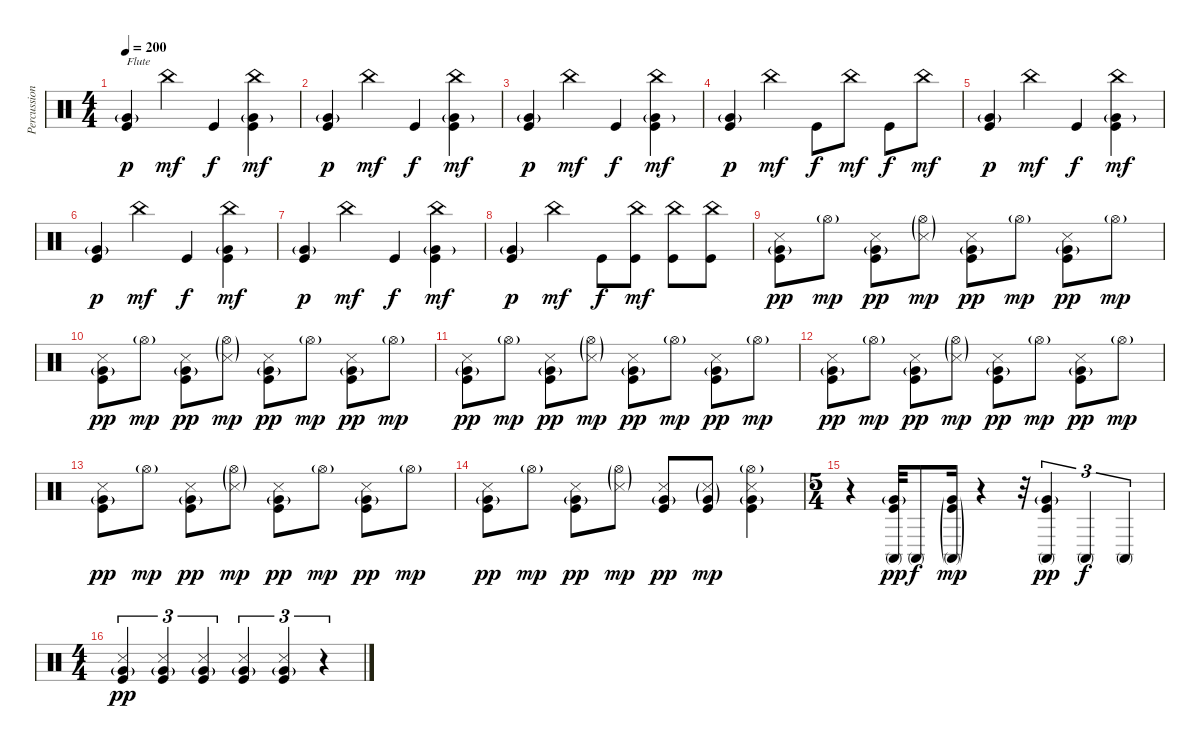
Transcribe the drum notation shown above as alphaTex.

\track ("Percussion" "Percussion") {instrument percussion}
\staff {score}
\articulation defaults
\ts (4 4)
\tempo 200
\clef neutral
\ks c
("Very Low Tom (hit)"{g} "Kick (hit)").4{txt "Flute" dy p} "China (hit)".4{dy mf} "Kick (hit)".4{dy f} ("Very Low Tom (hit)"{g} "China (hit)" "Kick (hit)").4{dy mf} |
("Very Low Tom (hit)"{g} "Kick (hit)").4{dy p} "China (hit)".4{dy mf} "Kick (hit)".4{dy f} ("Very Low Tom (hit)"{g} "China (hit)" "Kick (hit)").4{dy mf} |
("Very Low Tom (hit)"{g} "Kick (hit)").4{dy p} "China (hit)".4{dy mf} "Kick (hit)".4{dy f} ("Very Low Tom (hit)"{g} "China (hit)" "Kick (hit)").4{dy mf} |
("Very Low Tom (hit)"{g} "Kick (hit)").4{dy p} "China (hit)".4{dy mf} "Kick (hit)".8{dy f} "China (hit)".8{dy mf} "Kick (hit)".8{dy f} "China (hit)".8{dy mf} |
("Very Low Tom (hit)"{g} "Kick (hit)").4{dy p} "China (hit)".4{dy mf} "Kick (hit)".4{dy f} ("Very Low Tom (hit)"{g} "China (hit)" "Kick (hit)").4{dy mf} |
("Very Low Tom (hit)"{g} "Kick (hit)").4{dy p} "China (hit)".4{dy mf} "Kick (hit)".4{dy f} ("Very Low Tom (hit)"{g} "China (hit)" "Kick (hit)").4{dy mf} |
("Very Low Tom (hit)"{g} "Kick (hit)").4{dy p} "China (hit)".4{dy mf} "Kick (hit)".4{dy f} ("Very Low Tom (hit)"{g} "China (hit)" "Kick (hit)").4{dy mf} |
("Very Low Tom (hit)"{g} "Kick (hit)").4{dy p} "China (hit)".4{dy mf} "Kick (hit)".8{dy f} ("China (hit)" "Kick (hit)").8{dy mf} ("China (hit)" "Kick (hit)").8 ("China (hit)" "Kick (hit)").8 |
("Very Low Tom (hit)"{g} "Snare (side stick) 3" "Kick (hit)").8{dy pp} "Hi-Hat (open)"{g}.8{dy mp} ("Very Low Tom (hit)"{g} "Snare (side stick) 3" "Kick (hit)").8{dy pp} ("Snare (side stick) 3"{g} "Hi-Hat (open)"{g}).8{dy mp} ("Very Low Tom (hit)"{g} "Snare (side stick) 3" "Kick (hit)").8{dy pp} "Hi-Hat (open)"{g}.8{dy mp} ("Very Low Tom (hit)"{g} "Snare (side stick) 3" "Kick (hit)").8{dy pp} "Hi-Hat (open)"{g}.8{dy mp} |
("Very Low Tom (hit)"{g} "Snare (side stick) 3" "Kick (hit)").8{dy pp} "Hi-Hat (open)"{g}.8{dy mp} ("Very Low Tom (hit)"{g} "Snare (side stick) 3" "Kick (hit)").8{dy pp} ("Snare (side stick) 3"{g} "Hi-Hat (open)"{g}).8{dy mp} ("Very Low Tom (hit)"{g} "Snare (side stick) 3" "Kick (hit)").8{dy pp} "Hi-Hat (open)"{g}.8{dy mp} ("Very Low Tom (hit)"{g} "Snare (side stick) 3" "Kick (hit)").8{dy pp} "Hi-Hat (open)"{g}.8{dy mp} |
("Very Low Tom (hit)"{g} "Snare (side stick) 3" "Kick (hit)").8{dy pp} "Hi-Hat (open)"{g}.8{dy mp} ("Very Low Tom (hit)"{g} "Snare (side stick) 3" "Kick (hit)").8{dy pp} ("Snare (side stick) 3"{g} "Hi-Hat (open)"{g}).8{dy mp} ("Very Low Tom (hit)"{g} "Snare (side stick) 3" "Kick (hit)").8{dy pp} "Hi-Hat (open)"{g}.8{dy mp} ("Very Low Tom (hit)"{g} "Snare (side stick) 3" "Kick (hit)").8{dy pp} "Hi-Hat (open)"{g}.8{dy mp} |
("Very Low Tom (hit)"{g} "Snare (side stick) 3" "Kick (hit)").8{dy pp} "Hi-Hat (open)"{g}.8{dy mp} ("Very Low Tom (hit)"{g} "Snare (side stick) 3" "Kick (hit)").8{dy pp} ("Snare (side stick) 3"{g} "Hi-Hat (open)"{g}).8{dy mp} ("Very Low Tom (hit)"{g} "Snare (side stick) 3" "Kick (hit)").8{dy pp} "Hi-Hat (open)"{g}.8{dy mp} ("Very Low Tom (hit)"{g} "Snare (side stick) 3" "Kick (hit)").8{dy pp} "Hi-Hat (open)"{g}.8{dy mp} |
("Very Low Tom (hit)"{g} "Snare (side stick) 3" "Kick (hit)").8{dy pp} "Hi-Hat (open)"{g}.8{dy mp} ("Very Low Tom (hit)"{g} "Snare (side stick) 3" "Kick (hit)").8{dy pp} ("Snare (side stick) 3"{g} "Hi-Hat (open)"{g}).8{dy mp} ("Very Low Tom (hit)"{g} "Snare (side stick) 3" "Kick (hit)").8{dy pp} "Hi-Hat (open)"{g}.8{dy mp} ("Very Low Tom (hit)"{g} "Snare (side stick) 3" "Kick (hit)").8{dy pp} "Hi-Hat (open)"{g}.8{dy mp} |
("Very Low Tom (hit)"{g} "Snare (side stick) 3" "Kick (hit)").8{dy pp} "Hi-Hat (open)"{g}.8{dy mp} ("Very Low Tom (hit)"{g} "Snare (side stick) 3" "Kick (hit)").8{dy pp} ("Snare (side stick) 3"{g} "Hi-Hat (open)"{g}).8{dy mp} ("Very Low Tom (hit)"{g} "Snare (side stick) 3" "Kick (hit)").8{dy pp} ("Very Low Tom (hit)"{g} "Snare (side stick) 3"{g} "Kick (hit)").8{dy mp} ("Very Low Tom (hit)"{g} "Snare (side stick) 3" "Hi-Hat (open)"{g} "Kick (hit)").4 |
\ts (5 4)
r.4 ("Very Low Tom (hit)"{g} "Conga high (mute)" "Kick (hit)").32{dy pp} "Conga high (mute)".8{dy f} ("Very Low Tom (hit)"{g} "Conga high (mute)"{g} "Kick (hit)"{g}).16{dy mp} r.4 r.32 ("Very Low Tom (hit)"{g} "Conga high (mute)" "Kick (hit)").4{tu (3 2) dy pp} "Conga high (mute)".4{tu (3 2) dy f} "Conga high (mute)".4{tu (3 2)} |
\ts (4 4)
("Very Low Tom (hit)"{g} "Snare (side stick) 3" "Kick (hit)").4{tu (3 2) dy pp} ("Very Low Tom (hit)"{g} "Snare (side stick) 3" "Kick (hit)").4{tu (3 2)} ("Very Low Tom (hit)"{g} "Snare (side stick) 3" "Kick (hit)").4{tu (3 2)} ("Very Low Tom (hit)"{g} "Snare (side stick) 3" "Kick (hit)").4{tu (3 2)} ("Very Low Tom (hit)"{g} "Snare (side stick) 3" "Kick (hit)").4{tu (3 2)} r.4{tu (3 2)}
